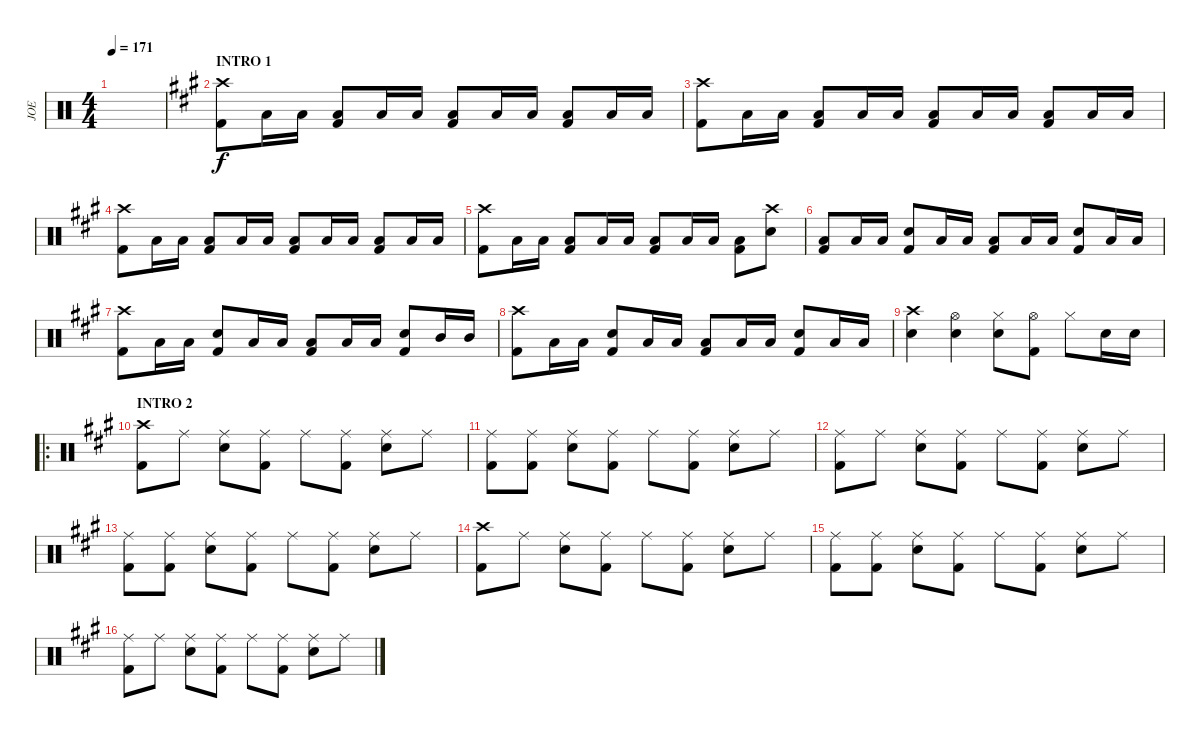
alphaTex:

\track ("JOE" "JOE") {instrument percussion}
\staff {score}
\articulation defaults
\ts (4 4)
\tempo 171
\clef neutral
\ks c
|
\section ("" "INTRO 1")
\ks a
("Crash high (hit)" "Kick (hit) 2").8 "Low Floor Tom (hit)".16 "Low Floor Tom (hit)".16 ("Low Floor Tom (hit)" "Kick (hit) 2").8 "Low Floor Tom (hit)".16 "Low Floor Tom (hit)".16 ("Low Floor Tom (hit)" "Kick (hit) 2").8 "Low Floor Tom (hit)".16 "Low Floor Tom (hit)".16 ("Low Floor Tom (hit)" "Kick (hit) 2").8 "Low Floor Tom (hit)".16 "Low Floor Tom (hit)".16 |
("Crash high (hit)" "Kick (hit) 2").8 "Low Floor Tom (hit)".16 "Low Floor Tom (hit)".16 ("Low Floor Tom (hit)" "Kick (hit) 2").8 "Low Floor Tom (hit)".16 "Low Floor Tom (hit)".16 ("Low Floor Tom (hit)" "Kick (hit) 2").8 "Low Floor Tom (hit)".16 "Low Floor Tom (hit)".16 ("Low Floor Tom (hit)" "Kick (hit) 2").8 "Low Floor Tom (hit)".16 "Low Floor Tom (hit)".16 |
("Crash high (hit)" "Kick (hit) 2").8 "Low Floor Tom (hit)".16 "Low Floor Tom (hit)".16 ("Low Floor Tom (hit)" "Kick (hit) 2").8 "Low Floor Tom (hit)".16 "Low Floor Tom (hit)".16 ("Low Floor Tom (hit)" "Kick (hit) 2").8 "Low Floor Tom (hit)".16 "Low Floor Tom (hit)".16 ("Low Floor Tom (hit)" "Kick (hit) 2").8 "Low Floor Tom (hit)".16 "Low Floor Tom (hit)".16 |
("Crash high (hit)" "Kick (hit) 2").8 "Low Floor Tom (hit)".16 "Low Floor Tom (hit)".16 ("Low Floor Tom (hit)" "Kick (hit) 2").8 "Low Floor Tom (hit)".16 "Low Floor Tom (hit)".16 ("Low Floor Tom (hit)" "Kick (hit) 2").8 "Low Floor Tom (hit)".16 "Low Floor Tom (hit)".16 ("Low Floor Tom (hit)" "Kick (hit) 2").8 ("Crash high (hit)" "Snare (hit) 2").8 |
("Low Floor Tom (hit)" "Kick (hit) 2").8 "Low Floor Tom (hit)".16 "Low Floor Tom (hit)".16 ("Snare (hit) 2" "Kick (hit) 2").8 "Low Floor Tom (hit)".16 "Low Floor Tom (hit)".16 ("Low Floor Tom (hit)" "Kick (hit) 2").8 "Low Floor Tom (hit)".16 "Low Floor Tom (hit)".16 ("Snare (hit) 2" "Kick (hit) 2").8 "Low Floor Tom (hit)".16 "Low Floor Tom (hit)".16 |
("Crash high (hit)" "Kick (hit) 2").8 "Low Floor Tom (hit)".16 "Low Floor Tom (hit)".16 ("Snare (hit) 2" "Kick (hit) 2").8 "Low Floor Tom (hit)".16 "Low Floor Tom (hit)".16 ("Low Floor Tom (hit)" "Kick (hit) 2").8 "Low Floor Tom (hit)".16 "Low Floor Tom (hit)".16 ("Snare (hit) 2" "Kick (hit) 2").8 "Mid Tom (hit)".16 "Mid Tom (hit)".16 |
("Crash high (hit)" "Kick (hit) 2").8 "Low Floor Tom (hit)".16 "Low Floor Tom (hit)".16 ("Snare (hit) 2" "Kick (hit) 2").8 "Low Floor Tom (hit)".16 "Low Floor Tom (hit)".16 ("Low Floor Tom (hit)" "Kick (hit) 2").8 "Low Floor Tom (hit)".16 "Low Floor Tom (hit)".16 ("Snare (hit) 2" "Kick (hit) 2").8 "Low Floor Tom (hit)".16 "Low Floor Tom (hit)".16 |
("Crash high (hit)" "Snare (hit) 2").4 ("Hi-Hat (open)" "Snare (hit) 2").4 ("Hi-Hat (closed)" "Snare (hit) 2").8 ("Hi-Hat (open)" "Kick (hit) 2").8 "Hi-Hat (closed)".8 "Snare (hit) 2".16 "Snare (hit) 2".16 |
\ro
\section ("" "INTRO 2")
("Crash high (hit)" "Kick (hit) 2").8 "Ride (middle)".8 ("Ride (middle)" "Snare (hit) 2").8 ("Ride (middle)" "Kick (hit) 2").8 "Ride (middle)".8 ("Ride (middle)" "Kick (hit) 2").8 ("Ride (middle)" "Snare (hit) 2").8 "Ride (middle)".8 |
("Ride (middle)" "Kick (hit) 2").8 ("Ride (middle)" "Kick (hit) 2").8 ("Ride (middle)" "Snare (hit) 2").8 ("Ride (middle)" "Kick (hit) 2").8 "Ride (middle)".8 ("Ride (middle)" "Kick (hit) 2").8 ("Ride (middle)" "Snare (hit) 2").8 "Ride (middle)".8 |
("Ride (middle)" "Kick (hit) 2").8 "Ride (middle)".8 ("Ride (middle)" "Snare (hit) 2").8 ("Ride (middle)" "Kick (hit) 2").8 "Ride (middle)".8 ("Ride (middle)" "Kick (hit) 2").8 ("Ride (middle)" "Snare (hit) 2").8 "Ride (middle)".8 |
("Ride (middle)" "Kick (hit) 2").8 ("Ride (middle)" "Kick (hit) 2").8 ("Ride (middle)" "Snare (hit) 2").8 ("Ride (middle)" "Kick (hit) 2").8 "Ride (middle)".8 ("Ride (middle)" "Kick (hit) 2").8 ("Ride (middle)" "Snare (hit) 2").8 "Ride (middle)".8 |
("Crash high (hit)" "Kick (hit) 2").8 "Ride (middle)".8 ("Ride (middle)" "Snare (hit) 2").8 ("Ride (middle)" "Kick (hit) 2").8 "Ride (middle)".8 ("Ride (middle)" "Kick (hit) 2").8 ("Ride (middle)" "Snare (hit) 2").8 "Ride (middle)".8 |
("Ride (middle)" "Kick (hit) 2").8 ("Ride (middle)" "Kick (hit) 2").8 ("Ride (middle)" "Snare (hit) 2").8 ("Ride (middle)" "Kick (hit) 2").8 "Ride (middle)".8 ("Ride (middle)" "Kick (hit) 2").8 ("Ride (middle)" "Snare (hit) 2").8 "Ride (middle)".8 |
("Ride (middle)" "Kick (hit) 2").8 "Ride (middle)".8 ("Ride (middle)" "Snare (hit) 2").8 ("Ride (middle)" "Kick (hit) 2").8 "Ride (middle)".8 ("Ride (middle)" "Kick (hit) 2").8 ("Ride (middle)" "Snare (hit) 2").8 "Ride (middle)".8
